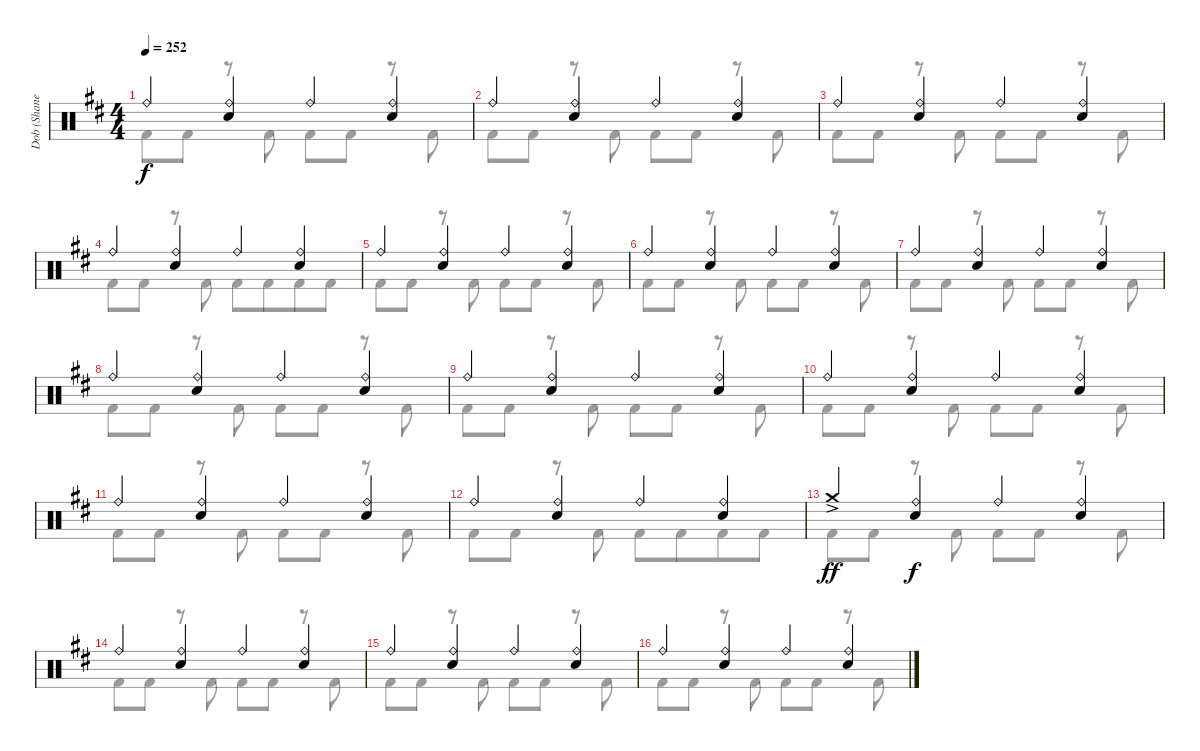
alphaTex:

\track ("Dob (Shane Gaalaas)" "Dob (Shane") {instrument percussion}
\staff {score}
\articulation defaults
\voice
\ts (4 4)
\tempo 252
\clef neutral
\ks d "Ride (bell)".4{dy f}
("Ride (bell)" "Electric Snare (hit)").4 "Ride (bell)".4 ("Ride (bell)" "Electric Snare (hit)").4 |
"Ride (bell)".4 ("Ride (bell)" "Electric Snare (hit)").4 "Ride (bell)".4 ("Ride (bell)" "Electric Snare (hit)").4 |
"Ride (bell)".4 ("Ride (bell)" "Electric Snare (hit)").4 "Ride (bell)".4 ("Ride (bell)" "Electric Snare (hit)").4 |
"Ride (bell)".4 ("Ride (bell)" "Electric Snare (hit)").4 "Ride (bell)".4 ("Ride (bell)" "Electric Snare (hit)").4 |
"Ride (bell)".4 ("Ride (bell)" "Electric Snare (hit)").4 "Ride (bell)".4 ("Ride (bell)" "Electric Snare (hit)").4 |
"Ride (bell)".4 ("Ride (bell)" "Electric Snare (hit)").4 "Ride (bell)".4 ("Ride (bell)" "Electric Snare (hit)").4 |
"Ride (bell)".4 ("Ride (bell)" "Electric Snare (hit)").4 "Ride (bell)".4 ("Ride (bell)" "Electric Snare (hit)").4 |
"Ride (bell)".4 ("Ride (bell)" "Electric Snare (hit)").4 "Ride (bell)".4 ("Ride (bell)" "Electric Snare (hit)").4 |
"Ride (bell)".4 ("Ride (bell)" "Electric Snare (hit)").4 "Ride (bell)".4 ("Ride (bell)" "Electric Snare (hit)").4 |
"Ride (bell)".4 ("Ride (bell)" "Electric Snare (hit)").4 "Ride (bell)".4 ("Ride (bell)" "Electric Snare (hit)").4 |
"Ride (bell)".4 ("Ride (bell)" "Electric Snare (hit)").4 "Ride (bell)".4 ("Ride (bell)" "Electric Snare (hit)").4 |
"Ride (bell)".4 ("Ride (bell)" "Electric Snare (hit)").4 "Ride (bell)".4 ("Ride (bell)" "Electric Snare (hit)").4 |
"Crash medium (hit)"{ac}.4{dy ff} ("Ride (bell)" "Electric Snare (hit)").4{dy f} "Ride (bell)".4 ("Ride (bell)" "Electric Snare (hit)").4 |
"Ride (bell)".4 ("Ride (bell)" "Electric Snare (hit)").4 "Ride (bell)".4 ("Ride (bell)" "Electric Snare (hit)").4 |
"Ride (bell)".4 ("Ride (bell)" "Electric Snare (hit)").4 "Ride (bell)".4 ("Ride (bell)" "Electric Snare (hit)").4 |
"Ride (bell)".4 ("Ride (bell)" "Electric Snare (hit)").4 "Ride (bell)".4 ("Ride (bell)" "Electric Snare (hit)").4
\voice
\clef neutral
\ottava regular
\simile none
\ks d "Kick (hit) 2".8{dy f} "Kick (hit) 2".8
r.8 "Kick (hit) 2".8 "Kick (hit) 2".8 "Kick (hit) 2".8 r.8 "Kick (hit) 2".8 |
"Kick (hit) 2".8 "Kick (hit) 2".8 r.8 "Kick (hit) 2".8 "Kick (hit) 2".8 "Kick (hit) 2".8 r.8 "Kick (hit) 2".8 |
"Kick (hit) 2".8 "Kick (hit) 2".8 r.8 "Kick (hit) 2".8 "Kick (hit) 2".8 "Kick (hit) 2".8 r.8 "Kick (hit) 2".8 |
"Kick (hit) 2".8 "Kick (hit) 2".8 r.8 "Kick (hit) 2".8 "Kick (hit) 2".8 "Kick (hit) 2".8{beam merge} "Kick (hit) 2".8 "Kick (hit) 2".8 |
"Kick (hit) 2".8 "Kick (hit) 2".8 r.8 "Kick (hit) 2".8 "Kick (hit) 2".8 "Kick (hit) 2".8 r.8 "Kick (hit) 2".8 |
"Kick (hit) 2".8 "Kick (hit) 2".8 r.8 "Kick (hit) 2".8 "Kick (hit) 2".8 "Kick (hit) 2".8 r.8 "Kick (hit) 2".8 |
"Kick (hit) 2".8 "Kick (hit) 2".8 r.8 "Kick (hit) 2".8 "Kick (hit) 2".8 "Kick (hit) 2".8 r.8 "Kick (hit) 2".8 |
"Kick (hit) 2".8 "Kick (hit) 2".8 r.8 "Kick (hit) 2".8 "Kick (hit) 2".8 "Kick (hit) 2".8 r.8 "Kick (hit) 2".8 |
"Kick (hit) 2".8 "Kick (hit) 2".8 r.8 "Kick (hit) 2".8 "Kick (hit) 2".8 "Kick (hit) 2".8 r.8 "Kick (hit) 2".8 |
"Kick (hit) 2".8 "Kick (hit) 2".8 r.8 "Kick (hit) 2".8 "Kick (hit) 2".8 "Kick (hit) 2".8 r.8 "Kick (hit) 2".8 |
"Kick (hit) 2".8 "Kick (hit) 2".8 r.8 "Kick (hit) 2".8 "Kick (hit) 2".8 "Kick (hit) 2".8 r.8 "Kick (hit) 2".8 |
"Kick (hit) 2".8 "Kick (hit) 2".8 r.8 "Kick (hit) 2".8 "Kick (hit) 2".8 "Kick (hit) 2".8{beam merge} "Kick (hit) 2".8 "Kick (hit) 2".8 |
"Kick (hit) 2".8 "Kick (hit) 2".8 r.8 "Kick (hit) 2".8 "Kick (hit) 2".8 "Kick (hit) 2".8 r.8 "Kick (hit) 2".8 |
"Kick (hit) 2".8 "Kick (hit) 2".8 r.8 "Kick (hit) 2".8 "Kick (hit) 2".8 "Kick (hit) 2".8 r.8 "Kick (hit) 2".8 |
"Kick (hit) 2".8 "Kick (hit) 2".8 r.8 "Kick (hit) 2".8 "Kick (hit) 2".8 "Kick (hit) 2".8 r.8 "Kick (hit) 2".8 |
"Kick (hit) 2".8 "Kick (hit) 2".8 r.8 "Kick (hit) 2".8 "Kick (hit) 2".8 "Kick (hit) 2".8 r.8 "Kick (hit) 2".8
